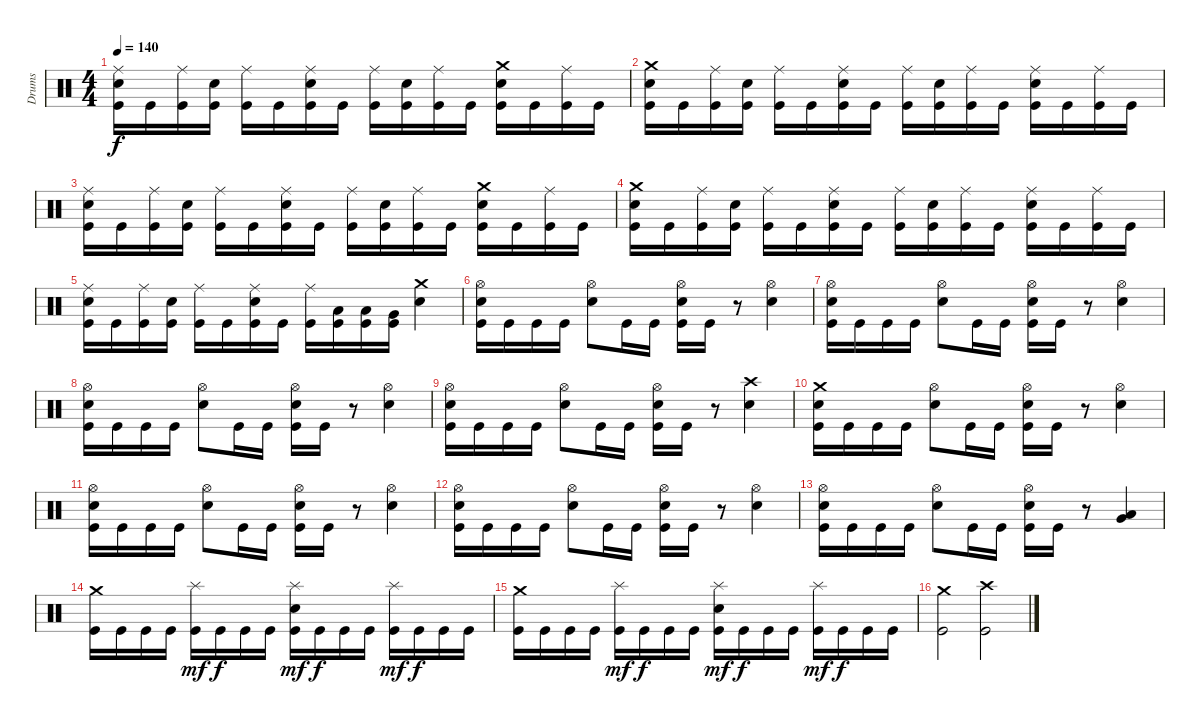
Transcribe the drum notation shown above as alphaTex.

\track ("Drums" "Drums") {instrument percussion}
\staff {score}
\articulation defaults
\ts (4 4)
\tempo 140
\clef neutral
\ks c
("Kick (hit)" "Electric Snare (hit)" "Ride (middle)").16{dy f} "Kick (hit)".16 ("Kick (hit)" "Ride (middle)").16 ("Kick (hit)" "Electric Snare (hit)").16 ("Kick (hit)" "Ride (middle)").16 "Kick (hit)".16 ("Kick (hit)" "Electric Snare (hit)" "Ride (middle)").16 "Kick (hit)".16 ("Kick (hit)" "Ride (middle)").16 ("Kick (hit)" "Electric Snare (hit)").16 ("Kick (hit)" "Ride (middle)").16 "Kick (hit)".16 ("Kick (hit)" "Electric Snare (hit)" "Crash medium (hit)").16 "Kick (hit)".16 ("Kick (hit)" "Ride (middle)").16 "Kick (hit)".16 |
("Kick (hit)" "Electric Snare (hit)" "Crash medium (hit)").16 "Kick (hit)".16 ("Kick (hit)" "Ride (middle)").16 ("Kick (hit)" "Electric Snare (hit)").16 ("Kick (hit)" "Ride (middle)").16 "Kick (hit)".16 ("Kick (hit)" "Electric Snare (hit)" "Ride (middle)").16 "Kick (hit)".16 ("Kick (hit)" "Ride (middle)").16 ("Kick (hit)" "Electric Snare (hit)").16 ("Kick (hit)" "Ride (middle)").16 "Kick (hit)".16 ("Kick (hit)" "Electric Snare (hit)" "Ride (middle)").16 "Kick (hit)".16 ("Kick (hit)" "Ride (middle)").16 "Kick (hit)".16 |
("Kick (hit)" "Electric Snare (hit)" "Ride (middle)").16 "Kick (hit)".16 ("Kick (hit)" "Ride (middle)").16 ("Kick (hit)" "Electric Snare (hit)").16 ("Kick (hit)" "Ride (middle)").16 "Kick (hit)".16 ("Kick (hit)" "Electric Snare (hit)" "Ride (middle)").16 "Kick (hit)".16 ("Kick (hit)" "Ride (middle)").16 ("Kick (hit)" "Electric Snare (hit)").16 ("Kick (hit)" "Ride (middle)").16 "Kick (hit)".16 ("Kick (hit)" "Electric Snare (hit)" "Crash medium (hit)").16 "Kick (hit)".16 ("Kick (hit)" "Ride (middle)").16 "Kick (hit)".16 |
("Kick (hit)" "Electric Snare (hit)" "Crash medium (hit)").16 "Kick (hit)".16 ("Kick (hit)" "Ride (middle)").16 ("Kick (hit)" "Electric Snare (hit)").16 ("Kick (hit)" "Ride (middle)").16 "Kick (hit)".16 ("Kick (hit)" "Electric Snare (hit)" "Ride (middle)").16 "Kick (hit)".16 ("Kick (hit)" "Ride (middle)").16 ("Kick (hit)" "Electric Snare (hit)").16 ("Kick (hit)" "Ride (middle)").16 "Kick (hit)".16 ("Kick (hit)" "Electric Snare (hit)" "Ride (middle)").16 "Kick (hit)".16 ("Kick (hit)" "Ride (middle)").16 "Kick (hit)".16 |
("Kick (hit)" "Electric Snare (hit)" "Ride (middle)").16 "Kick (hit)".16 ("Kick (hit)" "Ride (middle)").16 ("Kick (hit)" "Electric Snare (hit)").16 ("Kick (hit)" "Ride (middle)").16 "Kick (hit)".16 ("Kick (hit)" "Electric Snare (hit)" "Ride (middle)").16 "Kick (hit)".16 ("Kick (hit)" "Ride (middle)").16 ("Kick (hit)" "Low Tom (hit)").16 ("Kick (hit)" "Low Tom (hit)").16 ("Kick (hit)" "Very Low Tom (hit)").16 ("Electric Snare (hit)" "Crash medium (hit)").4 |
("Kick (hit)" "Electric Snare (hit)" "Hi-Hat (open)").16 "Kick (hit)".16 "Kick (hit)".16 "Kick (hit)".16 ("Electric Snare (hit)" "Hi-Hat (open)").8 "Kick (hit)".16 "Kick (hit)".16 ("Kick (hit)" "Electric Snare (hit)" "Hi-Hat (open)").16 "Kick (hit)".16 r.8 ("Electric Snare (hit)" "Hi-Hat (open)").4 |
("Kick (hit)" "Electric Snare (hit)" "Hi-Hat (open)").16 "Kick (hit)".16 "Kick (hit)".16 "Kick (hit)".16 ("Electric Snare (hit)" "Hi-Hat (open)").8 "Kick (hit)".16 "Kick (hit)".16 ("Kick (hit)" "Electric Snare (hit)" "Hi-Hat (open)").16 "Kick (hit)".16 r.8 ("Electric Snare (hit)" "Hi-Hat (open)").4 |
("Kick (hit)" "Electric Snare (hit)" "Hi-Hat (open)").16 "Kick (hit)".16 "Kick (hit)".16 "Kick (hit)".16 ("Electric Snare (hit)" "Hi-Hat (open)").8 "Kick (hit)".16 "Kick (hit)".16 ("Kick (hit)" "Electric Snare (hit)" "Hi-Hat (open)").16 "Kick (hit)".16 r.8 ("Electric Snare (hit)" "Hi-Hat (open)").4 |
("Kick (hit)" "Electric Snare (hit)" "Hi-Hat (open)").16 "Kick (hit)".16 "Kick (hit)".16 "Kick (hit)".16 ("Electric Snare (hit)" "Hi-Hat (open)").8 "Kick (hit)".16 "Kick (hit)".16 ("Kick (hit)" "Electric Snare (hit)" "Hi-Hat (open)").16 "Kick (hit)".16 r.8 ("Electric Snare (hit)" "Crash high (hit)").4 |
("Kick (hit)" "Electric Snare (hit)" "Crash medium (hit)").16 "Kick (hit)".16 "Kick (hit)".16 "Kick (hit)".16 ("Electric Snare (hit)" "Hi-Hat (open)").8 "Kick (hit)".16 "Kick (hit)".16 ("Kick (hit)" "Electric Snare (hit)" "Hi-Hat (open)").16 "Kick (hit)".16 r.8 ("Electric Snare (hit)" "Hi-Hat (open)").4 |
("Kick (hit)" "Electric Snare (hit)" "Hi-Hat (open)").16 "Kick (hit)".16 "Kick (hit)".16 "Kick (hit)".16 ("Electric Snare (hit)" "Hi-Hat (open)").8 "Kick (hit)".16 "Kick (hit)".16 ("Kick (hit)" "Electric Snare (hit)" "Hi-Hat (open)").16 "Kick (hit)".16 r.8 ("Electric Snare (hit)" "Hi-Hat (open)").4 |
("Kick (hit)" "Electric Snare (hit)" "Hi-Hat (open)").16 "Kick (hit)".16 "Kick (hit)".16 "Kick (hit)".16 ("Electric Snare (hit)" "Hi-Hat (open)").8 "Kick (hit)".16 "Kick (hit)".16 ("Kick (hit)" "Electric Snare (hit)" "Hi-Hat (open)").16 "Kick (hit)".16 r.8 ("Electric Snare (hit)" "Hi-Hat (open)").4 |
("Kick (hit)" "Electric Snare (hit)" "Hi-Hat (open)").16 "Kick (hit)".16 "Kick (hit)".16 "Kick (hit)".16 ("Electric Snare (hit)" "Hi-Hat (open)").8 "Kick (hit)".16 "Kick (hit)".16 ("Kick (hit)" "Electric Snare (hit)" "Hi-Hat (open)").16 "Kick (hit)".16 r.8 ("Very Low Tom (hit)" "Low Floor Tom (hit)").4 |
("Kick (hit)" "Crash medium (hit)").16 "Kick (hit)".16 "Kick (hit)".16 "Kick (hit)".16 ("Kick (hit)" "Splash (hit)").16{dy mf} "Kick (hit)".16{dy f} "Kick (hit)".16 "Kick (hit)".16 ("Kick (hit)" "Electric Snare (hit)" "Splash (hit)").16{dy mf} "Kick (hit)".16{dy f} "Kick (hit)".16 "Kick (hit)".16 ("Kick (hit)" "Splash (hit)").16{dy mf} "Kick (hit)".16{dy f} "Kick (hit)".16 "Kick (hit)".16 |
("Kick (hit)" "Crash medium (hit)").16 "Kick (hit)".16 "Kick (hit)".16 "Kick (hit)".16 ("Kick (hit)" "Splash (hit)").16{dy mf} "Kick (hit)".16{dy f} "Kick (hit)".16 "Kick (hit)".16 ("Kick (hit)" "Electric Snare (hit)" "Splash (hit)").16{dy mf} "Kick (hit)".16{dy f} "Kick (hit)".16 "Kick (hit)".16 ("Kick (hit)" "Splash (hit)").16{dy mf} "Kick (hit)".16{dy f} "Kick (hit)".16 "Kick (hit)".16 |
("Kick (hit)" "Crash medium (hit)").2 ("Kick (hit)" "Crash high (hit)").2
